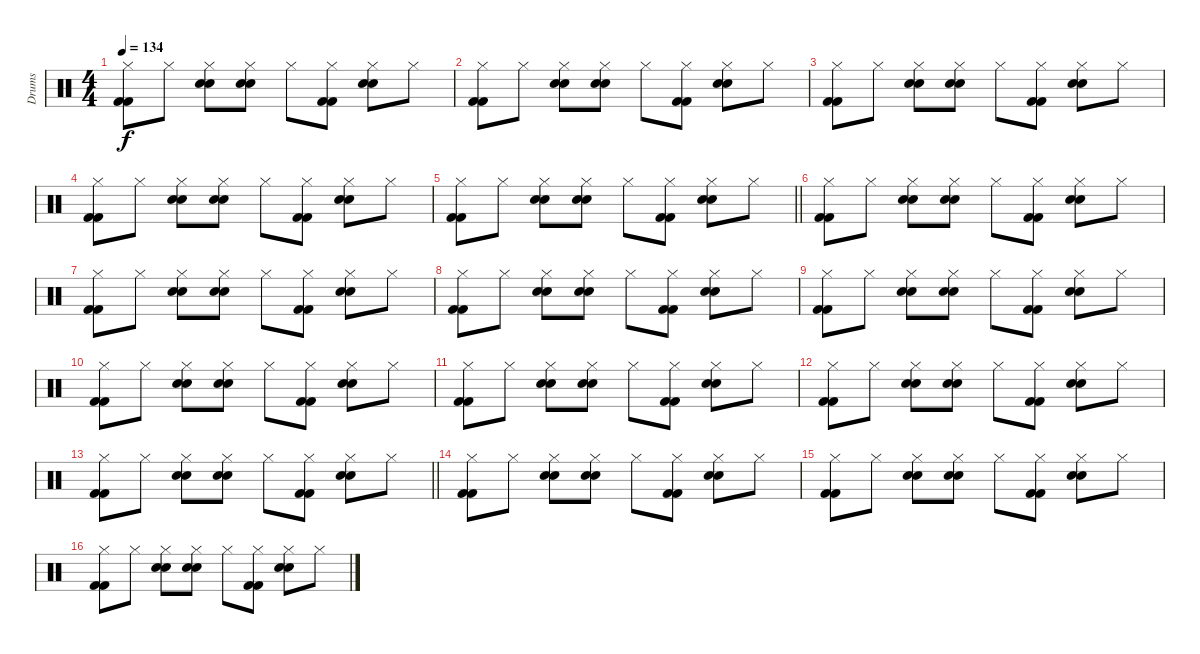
\track ("Drums" "Drums") {instrument percussion}
\staff {score}
\articulation defaults
\ts (4 4)
\tempo 134
\clef neutral
\ks c
("Kick (hit) 2" "Kick (hit) 2" "Hi-Hat (closed)").8{dy f} "Hi-Hat (closed)".8 ("Snare (hit) 2" "Hi-Hat (closed)" "Electric Snare (hit)").8 ("Snare (hit) 2" "Hi-Hat (closed)" "Electric Snare (hit)").8 "Hi-Hat (closed)".8 ("Kick (hit) 2" "Kick (hit) 2" "Hi-Hat (closed)").8 ("Snare (hit) 2" "Hi-Hat (closed)" "Electric Snare (hit)").8 "Hi-Hat (closed)".8 |
("Kick (hit) 2" "Kick (hit) 2" "Hi-Hat (closed)").8 "Hi-Hat (closed)".8 ("Snare (hit) 2" "Hi-Hat (closed)" "Electric Snare (hit)").8 ("Snare (hit) 2" "Hi-Hat (closed)" "Electric Snare (hit)").8 "Hi-Hat (closed)".8 ("Kick (hit) 2" "Kick (hit) 2" "Hi-Hat (closed)").8 ("Snare (hit) 2" "Hi-Hat (closed)" "Electric Snare (hit)").8 "Hi-Hat (closed)".8 |
("Kick (hit) 2" "Kick (hit) 2" "Hi-Hat (closed)").8 "Hi-Hat (closed)".8 ("Snare (hit) 2" "Hi-Hat (closed)" "Electric Snare (hit)").8 ("Snare (hit) 2" "Hi-Hat (closed)" "Electric Snare (hit)").8 "Hi-Hat (closed)".8 ("Kick (hit) 2" "Kick (hit) 2" "Hi-Hat (closed)").8 ("Snare (hit) 2" "Hi-Hat (closed)" "Electric Snare (hit)").8 "Hi-Hat (closed)".8 |
("Kick (hit) 2" "Kick (hit) 2" "Hi-Hat (closed)").8 "Hi-Hat (closed)".8 ("Snare (hit) 2" "Hi-Hat (closed)" "Electric Snare (hit)").8 ("Snare (hit) 2" "Hi-Hat (closed)" "Electric Snare (hit)").8 "Hi-Hat (closed)".8 ("Kick (hit) 2" "Kick (hit) 2" "Hi-Hat (closed)").8 ("Snare (hit) 2" "Hi-Hat (closed)" "Electric Snare (hit)").8 "Hi-Hat (closed)".8 |
\barLineRight lightlight
("Kick (hit) 2" "Kick (hit) 2" "Hi-Hat (closed)").8 "Hi-Hat (closed)".8 ("Snare (hit) 2" "Hi-Hat (closed)" "Electric Snare (hit)").8 ("Snare (hit) 2" "Hi-Hat (closed)" "Electric Snare (hit)").8 "Hi-Hat (closed)".8 ("Kick (hit) 2" "Kick (hit) 2" "Hi-Hat (closed)").8 ("Snare (hit) 2" "Hi-Hat (closed)" "Electric Snare (hit)").8 "Hi-Hat (closed)".8 |
("Kick (hit) 2" "Kick (hit) 2" "Hi-Hat (closed)").8 "Hi-Hat (closed)".8 ("Snare (hit) 2" "Hi-Hat (closed)" "Electric Snare (hit)").8 ("Snare (hit) 2" "Hi-Hat (closed)" "Electric Snare (hit)").8 "Hi-Hat (closed)".8 ("Kick (hit) 2" "Kick (hit) 2" "Hi-Hat (closed)").8 ("Snare (hit) 2" "Hi-Hat (closed)" "Electric Snare (hit)").8 "Hi-Hat (closed)".8 |
("Kick (hit) 2" "Kick (hit) 2" "Hi-Hat (closed)").8 "Hi-Hat (closed)".8 ("Snare (hit) 2" "Hi-Hat (closed)" "Electric Snare (hit)").8 ("Snare (hit) 2" "Hi-Hat (closed)" "Electric Snare (hit)").8 "Hi-Hat (closed)".8 ("Kick (hit) 2" "Kick (hit) 2" "Hi-Hat (closed)").8 ("Snare (hit) 2" "Hi-Hat (closed)" "Electric Snare (hit)").8 "Hi-Hat (closed)".8 |
("Kick (hit) 2" "Kick (hit) 2" "Hi-Hat (closed)").8 "Hi-Hat (closed)".8 ("Snare (hit) 2" "Hi-Hat (closed)" "Electric Snare (hit)").8 ("Snare (hit) 2" "Hi-Hat (closed)" "Electric Snare (hit)").8 "Hi-Hat (closed)".8 ("Kick (hit) 2" "Kick (hit) 2" "Hi-Hat (closed)").8 ("Snare (hit) 2" "Hi-Hat (closed)" "Electric Snare (hit)").8 "Hi-Hat (closed)".8 |
("Kick (hit) 2" "Kick (hit) 2" "Hi-Hat (closed)").8 "Hi-Hat (closed)".8 ("Snare (hit) 2" "Hi-Hat (closed)" "Electric Snare (hit)").8 ("Snare (hit) 2" "Hi-Hat (closed)" "Electric Snare (hit)").8 "Hi-Hat (closed)".8 ("Kick (hit) 2" "Kick (hit) 2" "Hi-Hat (closed)").8 ("Snare (hit) 2" "Hi-Hat (closed)" "Electric Snare (hit)").8 "Hi-Hat (closed)".8 |
("Kick (hit) 2" "Kick (hit) 2" "Hi-Hat (closed)").8 "Hi-Hat (closed)".8 ("Snare (hit) 2" "Hi-Hat (closed)" "Electric Snare (hit)").8 ("Snare (hit) 2" "Hi-Hat (closed)" "Electric Snare (hit)").8 "Hi-Hat (closed)".8 ("Kick (hit) 2" "Kick (hit) 2" "Hi-Hat (closed)").8 ("Snare (hit) 2" "Hi-Hat (closed)" "Electric Snare (hit)").8 "Hi-Hat (closed)".8 |
("Kick (hit) 2" "Kick (hit) 2" "Hi-Hat (closed)").8 "Hi-Hat (closed)".8 ("Snare (hit) 2" "Hi-Hat (closed)" "Electric Snare (hit)").8 ("Snare (hit) 2" "Hi-Hat (closed)" "Electric Snare (hit)").8 "Hi-Hat (closed)".8 ("Kick (hit) 2" "Kick (hit) 2" "Hi-Hat (closed)").8 ("Snare (hit) 2" "Hi-Hat (closed)" "Electric Snare (hit)").8 "Hi-Hat (closed)".8 |
("Kick (hit) 2" "Kick (hit) 2" "Hi-Hat (closed)").8 "Hi-Hat (closed)".8 ("Snare (hit) 2" "Hi-Hat (closed)" "Electric Snare (hit)").8 ("Snare (hit) 2" "Hi-Hat (closed)" "Electric Snare (hit)").8 "Hi-Hat (closed)".8 ("Kick (hit) 2" "Kick (hit) 2" "Hi-Hat (closed)").8 ("Snare (hit) 2" "Hi-Hat (closed)" "Electric Snare (hit)").8 "Hi-Hat (closed)".8 |
\barLineRight lightlight
("Kick (hit) 2" "Kick (hit) 2" "Hi-Hat (closed)").8 "Hi-Hat (closed)".8 ("Snare (hit) 2" "Hi-Hat (closed)" "Electric Snare (hit)").8 ("Snare (hit) 2" "Hi-Hat (closed)" "Electric Snare (hit)").8 "Hi-Hat (closed)".8 ("Kick (hit) 2" "Kick (hit) 2" "Hi-Hat (closed)").8 ("Snare (hit) 2" "Hi-Hat (closed)" "Electric Snare (hit)").8 "Hi-Hat (closed)".8 |
("Kick (hit) 2" "Kick (hit) 2" "Hi-Hat (closed)").8 "Hi-Hat (closed)".8 ("Snare (hit) 2" "Hi-Hat (closed)" "Electric Snare (hit)").8 ("Snare (hit) 2" "Hi-Hat (closed)" "Electric Snare (hit)").8 "Hi-Hat (closed)".8 ("Kick (hit) 2" "Kick (hit) 2" "Hi-Hat (closed)").8 ("Snare (hit) 2" "Hi-Hat (closed)" "Electric Snare (hit)").8 "Hi-Hat (closed)".8 |
("Kick (hit) 2" "Kick (hit) 2" "Hi-Hat (closed)").8 "Hi-Hat (closed)".8 ("Snare (hit) 2" "Hi-Hat (closed)" "Electric Snare (hit)").8 ("Snare (hit) 2" "Hi-Hat (closed)" "Electric Snare (hit)").8 "Hi-Hat (closed)".8 ("Kick (hit) 2" "Kick (hit) 2" "Hi-Hat (closed)").8 ("Snare (hit) 2" "Hi-Hat (closed)" "Electric Snare (hit)").8 "Hi-Hat (closed)".8 |
("Kick (hit) 2" "Kick (hit) 2" "Hi-Hat (closed)").8 "Hi-Hat (closed)".8 ("Snare (hit) 2" "Hi-Hat (closed)" "Electric Snare (hit)").8 ("Snare (hit) 2" "Hi-Hat (closed)" "Electric Snare (hit)").8 "Hi-Hat (closed)".8 ("Kick (hit) 2" "Kick (hit) 2" "Hi-Hat (closed)").8 ("Snare (hit) 2" "Hi-Hat (closed)" "Electric Snare (hit)").8 "Hi-Hat (closed)".8
